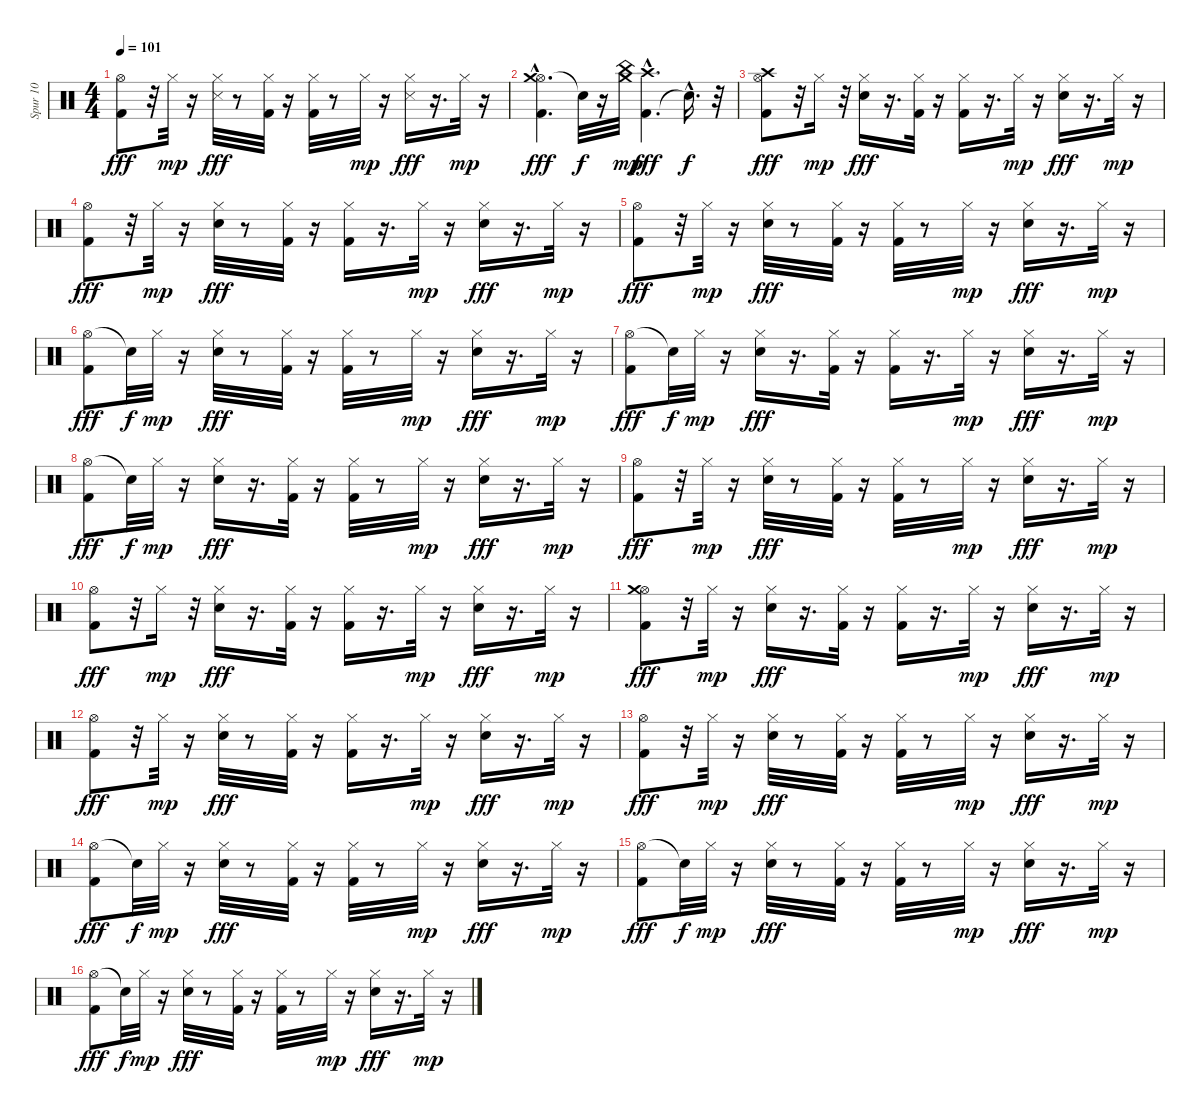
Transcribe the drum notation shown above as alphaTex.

\track ("Spur 10" "Spur 10") {instrument percussion}
\staff {score}
\articulation defaults
\ts (4 4)
\tempo 101
\clef neutral
\ks c
("Hi-Hat (open)" "Kick (hit) 2").8{dy fff} r.32 "Hi-Hat (closed)".32{dy mp} r.16 ("Hi-Hat (closed)" "Snare (side stick) 3").32{dy fff} r.8 ("Hi-Hat (closed)" "Kick (hit) 2").32 r.16 ("Hi-Hat (closed)" "Kick (hit) 2").32 r.8 "Hi-Hat (closed)".32{dy mp} r.16 ("Hi-Hat (closed)" "Snare (side stick) 3").16{dy fff} r.16{d} "Hi-Hat (closed)".32{dy mp} r.16 |
("Hi-Hat (open)"{hac} "Kick (hit) 2" "Crash medium (hit)").4{d dy fff} "Snare (hit)"{t}.32{dy f} r.16 ("China (hit)" "Crash medium (hit)").32{dy mp} ("Kick (hit) 2" "Crash high (hit)"{hac}).4{d dy fff} "Snare (hit)"{hac t}.16{d dy f} r.32 |
("Hi-Hat (open)" "Kick (hit) 2" "Crash high (hit)").8{dy fff} r.32 "Hi-Hat (closed)".16{dy mp} r.32 ("Hi-Hat (closed)" "Snare (hit) 2").16{dy fff} r.16{d} ("Hi-Hat (closed)" "Kick (hit) 2").32 r.16 ("Hi-Hat (closed)" "Kick (hit) 2").16 r.16{d} "Hi-Hat (closed)".32{dy mp} r.16 ("Hi-Hat (closed)" "Snare (hit) 2").16{dy fff} r.16{d} "Hi-Hat (closed)".32{dy mp} r.16 |
("Hi-Hat (open)" "Kick (hit) 2").8{dy fff} r.32 "Hi-Hat (closed)".32{dy mp} r.16 ("Hi-Hat (closed)" "Snare (hit) 2").32{dy fff} r.8 ("Hi-Hat (closed)" "Kick (hit) 2").32 r.16 ("Hi-Hat (closed)" "Kick (hit) 2").16 r.16{d} "Hi-Hat (closed)".32{dy mp} r.16 ("Hi-Hat (closed)" "Snare (hit) 2").16{dy fff} r.16{d} "Hi-Hat (closed)".32{dy mp} r.16 |
("Hi-Hat (open)" "Kick (hit) 2").8{dy fff} r.32 "Hi-Hat (closed)".32{dy mp} r.16 ("Hi-Hat (closed)" "Snare (hit) 2").32{dy fff} r.8 ("Hi-Hat (closed)" "Kick (hit) 2").32 r.16 ("Hi-Hat (closed)" "Kick (hit) 2").32 r.8 "Hi-Hat (closed)".32{dy mp} r.16 ("Hi-Hat (closed)" "Snare (hit) 2").16{dy fff} r.16{d} "Hi-Hat (closed)".32{dy mp} r.16 |
("Hi-Hat (open)" "Kick (hit) 2").8{dy fff} "Snare (hit)"{t}.32{dy f} "Hi-Hat (closed)".32{dy mp} r.16 ("Hi-Hat (closed)" "Snare (hit) 2").32{dy fff} r.8 ("Hi-Hat (closed)" "Kick (hit) 2").32 r.16 ("Hi-Hat (closed)" "Kick (hit) 2").32 r.8 "Hi-Hat (closed)".32{dy mp} r.16 ("Hi-Hat (closed)" "Snare (hit) 2").16{dy fff} r.16{d} "Hi-Hat (closed)".32{dy mp} r.16 |
("Hi-Hat (open)" "Kick (hit) 2").8{dy fff} "Snare (hit)"{t}.32{dy f} "Hi-Hat (closed)".32{dy mp} r.16 ("Hi-Hat (closed)" "Snare (hit) 2").16{dy fff} r.16{d} ("Hi-Hat (closed)" "Kick (hit) 2").32 r.16 ("Hi-Hat (closed)" "Kick (hit) 2").16 r.16{d} "Hi-Hat (closed)".32{dy mp} r.16 ("Hi-Hat (closed)" "Snare (hit) 2").16{dy fff} r.16{d} "Hi-Hat (closed)".32{dy mp} r.16 |
("Hi-Hat (open)" "Kick (hit) 2").8{dy fff} "Snare (hit)"{t}.32{dy f} "Hi-Hat (closed)".32{dy mp} r.16 ("Hi-Hat (closed)" "Snare (hit) 2").16{dy fff} r.16{d} ("Hi-Hat (closed)" "Kick (hit) 2").32 r.16 ("Hi-Hat (closed)" "Kick (hit) 2").32 r.8 "Hi-Hat (closed)".32{dy mp} r.16 ("Hi-Hat (closed)" "Snare (hit) 2").16{dy fff} r.16{d} "Hi-Hat (closed)".32{dy mp} r.16 |
("Hi-Hat (open)" "Kick (hit) 2").8{dy fff} r.32 "Hi-Hat (closed)".32{dy mp} r.16 ("Hi-Hat (closed)" "Snare (hit) 2").32{dy fff} r.8 ("Hi-Hat (closed)" "Kick (hit) 2").32 r.16 ("Hi-Hat (closed)" "Kick (hit) 2").32 r.8 "Hi-Hat (closed)".32{dy mp} r.16 ("Hi-Hat (closed)" "Snare (hit) 2").16{dy fff} r.16{d} "Hi-Hat (closed)".32{dy mp} r.16 |
("Hi-Hat (open)" "Kick (hit) 2").8{dy fff} r.32 "Hi-Hat (closed)".16{dy mp} r.32 ("Hi-Hat (closed)" "Snare (hit) 2").16{dy fff} r.16{d} ("Hi-Hat (closed)" "Kick (hit) 2").32 r.16 ("Hi-Hat (closed)" "Kick (hit) 2").16 r.16{d} "Hi-Hat (closed)".32{dy mp} r.16 ("Hi-Hat (closed)" "Snare (hit) 2").16{dy fff} r.16{d} "Hi-Hat (closed)".32{dy mp} r.16 |
("Hi-Hat (open)" "Kick (hit) 2" "Crash medium (hit)").8{dy fff} r.32 "Hi-Hat (closed)".32{dy mp} r.16 ("Hi-Hat (closed)" "Snare (hit) 2").16{dy fff} r.16{d} ("Hi-Hat (closed)" "Kick (hit) 2").32 r.16 ("Hi-Hat (closed)" "Kick (hit) 2").16 r.16{d} "Hi-Hat (closed)".32{dy mp} r.16 ("Hi-Hat (closed)" "Snare (hit) 2").16{dy fff} r.16{d} "Hi-Hat (closed)".32{dy mp} r.16 |
("Hi-Hat (open)" "Kick (hit) 2").8{dy fff} r.32 "Hi-Hat (closed)".32{dy mp} r.16 ("Hi-Hat (closed)" "Snare (hit) 2").32{dy fff} r.8 ("Hi-Hat (closed)" "Kick (hit) 2").32 r.16 ("Hi-Hat (closed)" "Kick (hit) 2").16 r.16{d} "Hi-Hat (closed)".32{dy mp} r.16 ("Hi-Hat (closed)" "Snare (hit) 2").16{dy fff} r.16{d} "Hi-Hat (closed)".32{dy mp} r.16 |
("Hi-Hat (open)" "Kick (hit) 2").8{dy fff} r.32 "Hi-Hat (closed)".32{dy mp} r.16 ("Hi-Hat (closed)" "Snare (hit) 2").32{dy fff} r.8 ("Hi-Hat (closed)" "Kick (hit) 2").32 r.16 ("Hi-Hat (closed)" "Kick (hit) 2").32 r.8 "Hi-Hat (closed)".32{dy mp} r.16 ("Hi-Hat (closed)" "Snare (hit) 2").16{dy fff} r.16{d} "Hi-Hat (closed)".32{dy mp} r.16 |
("Hi-Hat (open)" "Kick (hit) 2").8{dy fff} "Snare (hit)"{t}.32{dy f} "Hi-Hat (closed)".32{dy mp} r.16 ("Hi-Hat (closed)" "Snare (hit) 2").32{dy fff} r.8 ("Hi-Hat (closed)" "Kick (hit) 2").32 r.16 ("Hi-Hat (closed)" "Kick (hit) 2").32 r.8 "Hi-Hat (closed)".32{dy mp} r.16 ("Hi-Hat (closed)" "Snare (hit) 2").16{dy fff} r.16{d} "Hi-Hat (closed)".32{dy mp} r.16 |
("Hi-Hat (open)" "Kick (hit) 2").8{dy fff} "Snare (hit)"{t}.32{dy f} "Hi-Hat (closed)".32{dy mp} r.16 ("Hi-Hat (closed)" "Snare (hit) 2").32{dy fff} r.8 ("Hi-Hat (closed)" "Kick (hit) 2").32 r.16 ("Hi-Hat (closed)" "Kick (hit) 2").32 r.8 "Hi-Hat (closed)".32{dy mp} r.16 ("Hi-Hat (closed)" "Snare (hit) 2").16{dy fff} r.16{d} "Hi-Hat (closed)".32{dy mp} r.16 |
("Hi-Hat (open)" "Kick (hit) 2").8{dy fff} "Snare (hit)"{t}.32{dy f} "Hi-Hat (closed)".32{dy mp} r.16 ("Hi-Hat (closed)" "Snare (hit) 2").32{dy fff} r.8 ("Hi-Hat (closed)" "Kick (hit) 2").32 r.16 ("Hi-Hat (closed)" "Kick (hit) 2").32 r.8 "Hi-Hat (closed)".32{dy mp} r.16 ("Hi-Hat (closed)" "Snare (hit) 2").16{dy fff} r.16{d} "Hi-Hat (closed)".32{dy mp} r.16
